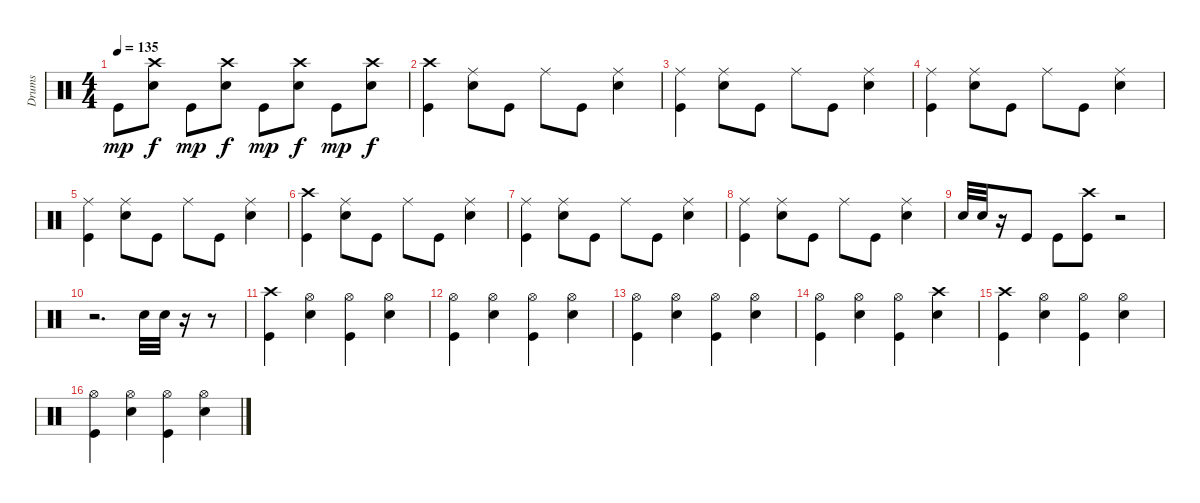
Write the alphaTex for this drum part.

\track ("Drums" "Drums") {instrument percussion}
\staff {score}
\articulation defaults
\ts (4 4)
\tempo 135
\clef neutral
\ks c "Kick (hit)".8{dy mp}
("Crash high (hit)" "Snare (hit) 2").8{dy f} "Kick (hit)".8{dy mp} ("Crash high (hit)" "Snare (hit) 2").8{dy f} "Kick (hit)".8{dy mp} ("Crash high (hit)" "Snare (hit) 2").8{dy f} "Kick (hit)".8{dy mp} ("Crash high (hit)" "Snare (hit) 2").8{dy f} |
("Crash high (hit)" "Kick (hit)").4 ("Ride (middle)" "Snare (hit) 2").8 "Kick (hit)".8 "Ride (middle)".8 "Kick (hit)".8 ("Ride (middle)" "Snare (hit) 2").4 |
("Ride (middle)" "Kick (hit)").4 ("Ride (middle)" "Snare (hit) 2").8 "Kick (hit)".8 "Ride (middle)".8 "Kick (hit)".8 ("Ride (middle)" "Snare (hit) 2").4 |
("Ride (middle)" "Kick (hit)").4 ("Ride (middle)" "Snare (hit) 2").8 "Kick (hit)".8 "Ride (middle)".8 "Kick (hit)".8 ("Ride (middle)" "Snare (hit) 2").4 |
("Ride (middle)" "Kick (hit)").4 ("Ride (middle)" "Snare (hit) 2").8 "Kick (hit)".8 "Ride (middle)".8 "Kick (hit)".8 ("Ride (middle)" "Snare (hit) 2").4 |
("Crash high (hit)" "Kick (hit)").4 ("Ride (middle)" "Snare (hit) 2").8 "Kick (hit)".8 "Ride (middle)".8 "Kick (hit)".8 ("Ride (middle)" "Snare (hit) 2").4 |
("Ride (middle)" "Kick (hit)").4 ("Ride (middle)" "Snare (hit) 2").8 "Kick (hit)".8 "Ride (middle)".8 "Kick (hit)".8 ("Ride (middle)" "Snare (hit) 2").4 |
("Ride (middle)" "Kick (hit)").4 ("Ride (middle)" "Snare (hit) 2").8 "Kick (hit)".8 "Ride (middle)".8 "Kick (hit)".8 ("Ride (middle)" "Snare (hit) 2").4 |
"Snare (hit) 2".32 "Snare (hit) 2".32 r.16 "Kick (hit)".8 "Kick (hit)".8 ("Crash high (hit)" "Kick (hit)").8 r.2 |
r.2{d} "Snare (hit) 2".32 "Snare (hit) 2".32 r.16 r.8 |
("Crash high (hit)" "Kick (hit)").4 ("Hi-Hat (open)" "Snare (hit) 2").4 ("Hi-Hat (open)" "Kick (hit)").4 ("Hi-Hat (open)" "Snare (hit) 2").4 |
("Hi-Hat (open)" "Kick (hit)").4 ("Hi-Hat (open)" "Snare (hit) 2").4 ("Hi-Hat (open)" "Kick (hit)").4 ("Hi-Hat (open)" "Snare (hit) 2").4 |
("Hi-Hat (open)" "Kick (hit)").4 ("Hi-Hat (open)" "Snare (hit) 2").4 ("Hi-Hat (open)" "Kick (hit)").4 ("Hi-Hat (open)" "Snare (hit) 2").4 |
("Hi-Hat (open)" "Kick (hit)").4 ("Hi-Hat (open)" "Snare (hit) 2").4 ("Hi-Hat (open)" "Kick (hit)").4 ("Crash high (hit)" "Snare (hit) 2").4 |
("Crash high (hit)" "Kick (hit)").4 ("Hi-Hat (open)" "Snare (hit) 2").4 ("Hi-Hat (open)" "Kick (hit)").4 ("Hi-Hat (open)" "Snare (hit) 2").4 |
("Hi-Hat (open)" "Kick (hit)").4 ("Hi-Hat (open)" "Snare (hit) 2").4 ("Hi-Hat (open)" "Kick (hit)").4 ("Hi-Hat (open)" "Snare (hit) 2").4
